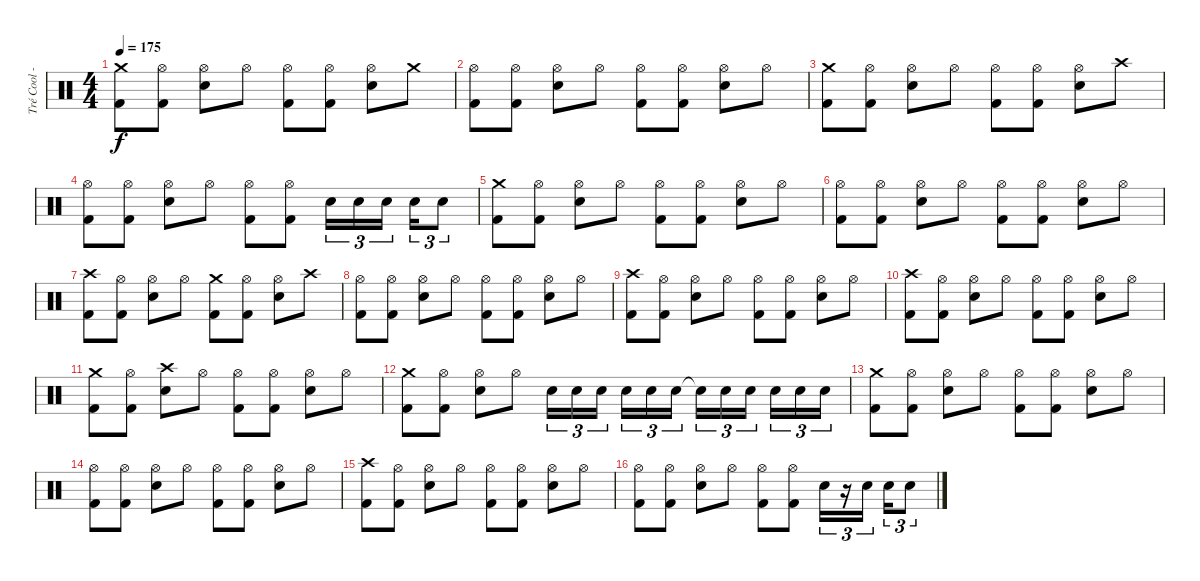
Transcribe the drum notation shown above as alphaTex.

\track ("Tré Cool - Drums" "Tré Cool -") {instrument percussion}
\staff {score}
\articulation defaults
\ts (4 4)
\tempo 175
\clef neutral
\ks c
("Crash medium (hit)" "Kick (hit) 2").8{dy f} ("Hi-Hat (open)" "Kick (hit) 2").8 ("Hi-Hat (open)" "Electric Snare (hit)").8 "Hi-Hat (open)".8 ("Hi-Hat (open)" "Kick (hit) 2").8 ("Hi-Hat (open)" "Kick (hit) 2").8 ("Hi-Hat (open)" "Electric Snare (hit)").8 "Crash medium (hit)".8 |
("Hi-Hat (open)" "Kick (hit) 2").8 ("Hi-Hat (open)" "Kick (hit) 2").8 ("Hi-Hat (open)" "Electric Snare (hit)").8 "Hi-Hat (open)".8 ("Hi-Hat (open)" "Kick (hit) 2").8 ("Hi-Hat (open)" "Kick (hit) 2").8 ("Hi-Hat (open)" "Electric Snare (hit)").8 "Hi-Hat (open)".8 |
("Crash medium (hit)" "Kick (hit) 2").8 ("Hi-Hat (open)" "Kick (hit) 2").8 ("Hi-Hat (open)" "Electric Snare (hit)").8 "Hi-Hat (open)".8 ("Hi-Hat (open)" "Kick (hit) 2").8 ("Hi-Hat (open)" "Kick (hit) 2").8 ("Hi-Hat (open)" "Electric Snare (hit)").8 "Crash high (hit)".8 |
("Hi-Hat (open)" "Kick (hit) 2").8 ("Hi-Hat (open)" "Kick (hit) 2").8 ("Hi-Hat (open)" "Electric Snare (hit)").8 "Hi-Hat (open)".8 ("Hi-Hat (open)" "Kick (hit) 2").8 ("Hi-Hat (open)" "Kick (hit) 2").8 "Electric Snare (hit)".16{tu (3 2)} "Electric Snare (hit)".16{tu (3 2)} "Electric Snare (hit)".16{tu (3 2) beam splitsecondary} "Electric Snare (hit)".16{tu (3 2)} "Electric Snare (hit)".8{tu (3 2)} |
("Crash medium (hit)" "Kick (hit) 2").8 ("Hi-Hat (open)" "Kick (hit) 2").8 ("Hi-Hat (open)" "Electric Snare (hit)").8 "Hi-Hat (open)".8 ("Hi-Hat (open)" "Kick (hit) 2").8 ("Hi-Hat (open)" "Kick (hit) 2").8 ("Hi-Hat (open)" "Electric Snare (hit)").8 "Hi-Hat (open)".8 |
("Hi-Hat (open)" "Kick (hit) 2").8 ("Hi-Hat (open)" "Kick (hit) 2").8 ("Hi-Hat (open)" "Electric Snare (hit)").8 "Hi-Hat (open)".8 ("Hi-Hat (open)" "Kick (hit) 2").8 ("Hi-Hat (open)" "Kick (hit) 2").8 ("Hi-Hat (open)" "Electric Snare (hit)").8 "Hi-Hat (open)".8 |
("Crash high (hit)" "Kick (hit) 2").8 ("Hi-Hat (open)" "Kick (hit) 2").8 ("Hi-Hat (open)" "Electric Snare (hit)").8 "Hi-Hat (open)".8 ("Crash medium (hit)" "Kick (hit) 2").8 ("Hi-Hat (open)" "Kick (hit) 2").8 ("Hi-Hat (open)" "Electric Snare (hit)").8 "Crash high (hit)".8 |
("Hi-Hat (open)" "Kick (hit) 2").8 ("Hi-Hat (open)" "Kick (hit) 2").8 ("Hi-Hat (open)" "Electric Snare (hit)").8 "Hi-Hat (open)".8 ("Hi-Hat (open)" "Kick (hit) 2").8 ("Hi-Hat (open)" "Kick (hit) 2").8 ("Hi-Hat (open)" "Electric Snare (hit)").8 "Hi-Hat (open)".8 |
("Crash high (hit)" "Kick (hit) 2").8 ("Hi-Hat (open)" "Kick (hit) 2").8 ("Hi-Hat (open)" "Electric Snare (hit)").8 "Hi-Hat (open)".8 ("Hi-Hat (open)" "Kick (hit) 2").8 ("Hi-Hat (open)" "Kick (hit) 2").8 ("Hi-Hat (open)" "Electric Snare (hit)").8 "Hi-Hat (open)".8 |
("Crash high (hit)" "Kick (hit) 2").8 ("Hi-Hat (open)" "Kick (hit) 2").8 ("Hi-Hat (open)" "Electric Snare (hit)").8 "Hi-Hat (open)".8 ("Hi-Hat (open)" "Kick (hit) 2").8 ("Hi-Hat (open)" "Kick (hit) 2").8 ("Hi-Hat (open)" "Electric Snare (hit)").8 "Hi-Hat (open)".8 |
("Crash medium (hit)" "Kick (hit) 2").8 ("Hi-Hat (open)" "Kick (hit) 2").8 ("Crash high (hit)" "Electric Snare (hit)").8 "Hi-Hat (open)".8 ("Hi-Hat (open)" "Kick (hit) 2").8 ("Hi-Hat (open)" "Kick (hit) 2").8 ("Hi-Hat (open)" "Electric Snare (hit)").8 "Hi-Hat (open)".8 |
("Crash medium (hit)" "Kick (hit) 2").8 ("Hi-Hat (open)" "Kick (hit) 2").8 ("Hi-Hat (open)" "Electric Snare (hit)").8 "Hi-Hat (open)".8 "Electric Snare (hit)".16{tu (3 2)} "Electric Snare (hit)".16{tu (3 2)} "Electric Snare (hit)".16{tu (3 2) beam splitsecondary} "Electric Snare (hit)".16{tu (3 2)} "Electric Snare (hit)".16{tu (3 2)} "Electric Snare (hit)".16{tu (3 2)} "Snare (hit)"{t}.16{tu (3 2)} "Electric Snare (hit)".16{tu (3 2)} "Electric Snare (hit)".16{tu (3 2) beam splitsecondary} "Electric Snare (hit)".16{tu (3 2)} "Electric Snare (hit)".16{tu (3 2)} "Electric Snare (hit)".16{tu (3 2)} |
("Crash medium (hit)" "Kick (hit) 2").8 ("Hi-Hat (open)" "Kick (hit) 2").8 ("Hi-Hat (open)" "Electric Snare (hit)").8 "Hi-Hat (open)".8 ("Hi-Hat (open)" "Kick (hit) 2").8 ("Hi-Hat (open)" "Kick (hit) 2").8 ("Hi-Hat (open)" "Electric Snare (hit)").8 "Hi-Hat (open)".8 |
("Hi-Hat (open)" "Kick (hit) 2").8 ("Hi-Hat (open)" "Kick (hit) 2").8 ("Hi-Hat (open)" "Electric Snare (hit)").8 "Hi-Hat (open)".8 ("Hi-Hat (open)" "Kick (hit) 2").8 ("Hi-Hat (open)" "Kick (hit) 2").8 ("Hi-Hat (open)" "Electric Snare (hit)").8 "Hi-Hat (open)".8 |
("Crash high (hit)" "Kick (hit) 2").8 ("Hi-Hat (open)" "Kick (hit) 2").8 ("Hi-Hat (open)" "Electric Snare (hit)").8 "Hi-Hat (open)".8 ("Hi-Hat (open)" "Kick (hit) 2").8 ("Hi-Hat (open)" "Kick (hit) 2").8 ("Hi-Hat (open)" "Electric Snare (hit)").8 "Hi-Hat (open)".8 |
("Hi-Hat (open)" "Kick (hit) 2").8 ("Hi-Hat (open)" "Kick (hit) 2").8 ("Hi-Hat (open)" "Electric Snare (hit)").8 "Hi-Hat (open)".8 ("Hi-Hat (open)" "Kick (hit) 2").8 ("Hi-Hat (open)" "Kick (hit) 2").8 "Electric Snare (hit)".16{tu (3 2)} r.16{tu (3 2)} "Electric Snare (hit)".16{tu (3 2) beam splitsecondary} "Electric Snare (hit)".16{tu (3 2)} "Electric Snare (hit)".8{tu (3 2)}
